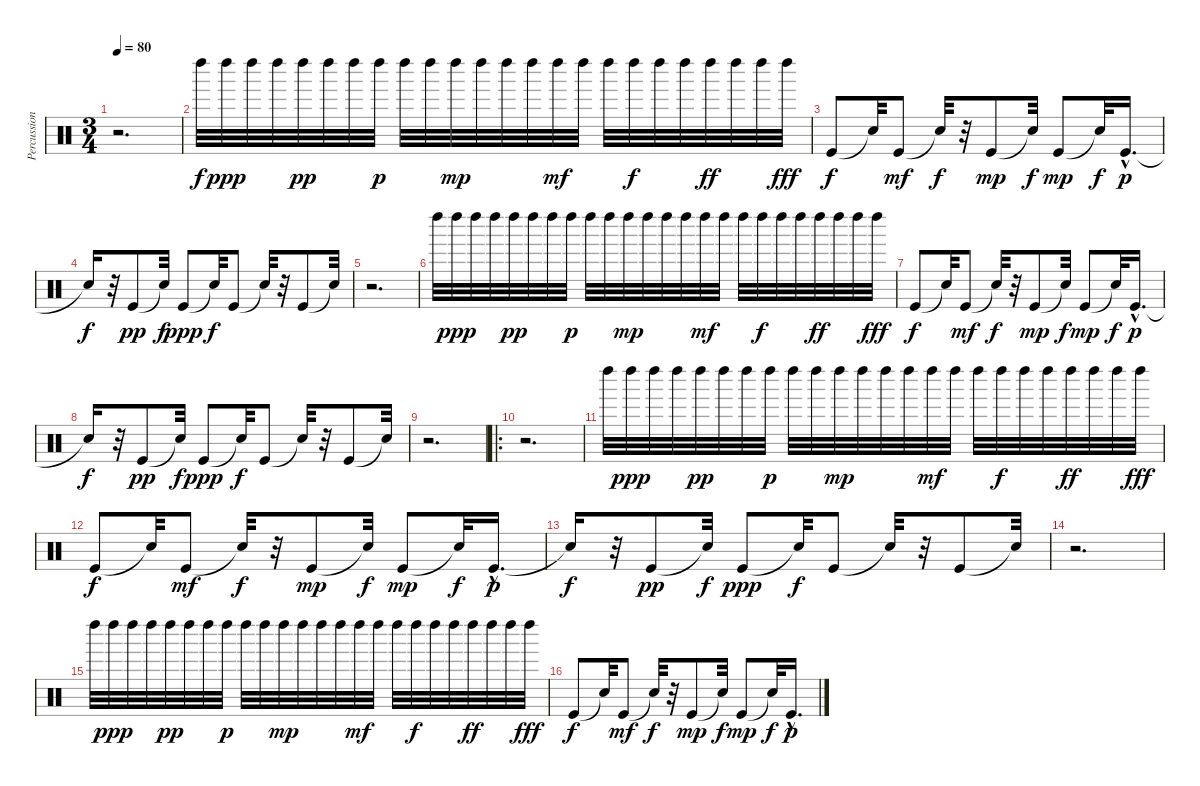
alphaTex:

\track ("Percussions" "Percussion") {instrument percussion}
\staff {score}
\articulation defaults
\ts (3 4)
\tempo 80
\clef neutral
\ks c
r.2{d dy f} |
"Left Maraca (hit)".32{balance 0} "Left Maraca (hit)".32{dy ppp balance 0} "Left Maraca (hit)".32{balance 1} "Left Maraca (hit)".32{balance 1} "Left Maraca (hit)".32{dy pp balance 2} "Left Maraca (hit)".32{balance 2} "Left Maraca (hit)".32{balance 2} "Left Maraca (hit)".32{dy p balance 3} "Left Maraca (hit)".32{balance 3} "Left Maraca (hit)".32{balance 4} "Left Maraca (hit)".32{dy mp balance 4} "Left Maraca (hit)".32{balance 4} "Left Maraca (hit)".32{balance 5} "Left Maraca (hit)".32{balance 5} "Left Maraca (hit)".32{dy mf balance 5} "Left Maraca (hit)".32{balance 6} "Left Maraca (hit)".32{balance 6} "Left Maraca (hit)".32{dy f balance 7} "Left Maraca (hit)".32{balance 7} "Left Maraca (hit)".32{balance 7} "Left Maraca (hit)".32{dy ff balance 8} "Left Maraca (hit)".32{balance 8} "Left Maraca (hit)".32{balance 8} "Left Maraca (hit)".32{dy fff balance 9} |
"Kick (hit)".8{dy f balance 9} "Snare (hit)"{t}.32 "Kick (hit)".8{dy mf balance 10} "Snare (hit)"{t}.32{dy f} r.32 "Kick (hit)".8{dy mp balance 11} "Snare (hit)"{t}.32{dy f} "Kick (hit)".8{dy mp balance 12} "Snare (hit)"{t}.32{dy f} "Kick (hit)"{hac}.16{d dy p balance 12} |
"Snare (hit)"{t}.16{dy f} r.32 "Kick (hit)".8{dy pp balance 13} "Snare (hit)"{t}.32{dy f} "Kick (hit)".8{dy ppp balance 14} "Snare (hit)"{t}.32{dy f} "Kick (hit)".8{balance 14} "Snare (hit)"{t}.32 r.32 "Kick (hit)".8{balance 15} "Snare (hit)"{t}.32 |
r.2{d} |
"Left Maraca (hit)".32{balance 0} "Left Maraca (hit)".32{dy ppp balance 0} "Left Maraca (hit)".32{balance 1} "Left Maraca (hit)".32{balance 1} "Left Maraca (hit)".32{dy pp balance 2} "Left Maraca (hit)".32{balance 2} "Left Maraca (hit)".32{balance 2} "Left Maraca (hit)".32{dy p balance 3} "Left Maraca (hit)".32{balance 3} "Left Maraca (hit)".32{balance 4} "Left Maraca (hit)".32{dy mp balance 4} "Left Maraca (hit)".32{balance 4} "Left Maraca (hit)".32{balance 5} "Left Maraca (hit)".32{balance 5} "Left Maraca (hit)".32{dy mf balance 5} "Left Maraca (hit)".32{balance 6} "Left Maraca (hit)".32{balance 6} "Left Maraca (hit)".32{dy f balance 7} "Left Maraca (hit)".32{balance 7} "Left Maraca (hit)".32{balance 7} "Left Maraca (hit)".32{dy ff balance 8} "Left Maraca (hit)".32{balance 8} "Left Maraca (hit)".32{balance 8} "Left Maraca (hit)".32{dy fff balance 9} |
"Kick (hit)".8{dy f balance 9} "Snare (hit)"{t}.32 "Kick (hit)".8{dy mf balance 10} "Snare (hit)"{t}.32{dy f} r.32 "Kick (hit)".8{dy mp balance 11} "Snare (hit)"{t}.32{dy f} "Kick (hit)".8{dy mp balance 12} "Snare (hit)"{t}.32{dy f} "Kick (hit)"{hac}.16{d dy p balance 12} |
"Snare (hit)"{t}.16{dy f} r.32 "Kick (hit)".8{dy pp balance 13} "Snare (hit)"{t}.32{dy f} "Kick (hit)".8{dy ppp balance 14} "Snare (hit)"{t}.32{dy f} "Kick (hit)".8{balance 14} "Snare (hit)"{t}.32 r.32 "Kick (hit)".8{balance 15} "Snare (hit)"{t}.32 |
r.2{d} |
\ro
r.2{d} |
"Left Maraca (hit)".32{balance 0} "Left Maraca (hit)".32{dy ppp balance 0} "Left Maraca (hit)".32{balance 1} "Left Maraca (hit)".32{balance 1} "Left Maraca (hit)".32{dy pp balance 2} "Left Maraca (hit)".32{balance 2} "Left Maraca (hit)".32{balance 2} "Left Maraca (hit)".32{dy p balance 3} "Left Maraca (hit)".32{balance 3} "Left Maraca (hit)".32{balance 4} "Left Maraca (hit)".32{dy mp balance 4} "Left Maraca (hit)".32{balance 4} "Left Maraca (hit)".32{balance 5} "Left Maraca (hit)".32{balance 5} "Left Maraca (hit)".32{dy mf balance 5} "Left Maraca (hit)".32{balance 6} "Left Maraca (hit)".32{balance 6} "Left Maraca (hit)".32{dy f balance 7} "Left Maraca (hit)".32{balance 7} "Left Maraca (hit)".32{balance 7} "Left Maraca (hit)".32{dy ff balance 8} "Left Maraca (hit)".32{balance 8} "Left Maraca (hit)".32{balance 8} "Left Maraca (hit)".32{dy fff balance 9} |
"Kick (hit)".8{dy f balance 9} "Snare (hit)"{t}.32 "Kick (hit)".8{dy mf balance 10} "Snare (hit)"{t}.32{dy f} r.32 "Kick (hit)".8{dy mp balance 11} "Snare (hit)"{t}.32{dy f} "Kick (hit)".8{dy mp balance 12} "Snare (hit)"{t}.32{dy f} "Kick (hit)"{hac}.16{d dy p balance 12} |
"Snare (hit)"{t}.16{dy f} r.32 "Kick (hit)".8{dy pp balance 13} "Snare (hit)"{t}.32{dy f} "Kick (hit)".8{dy ppp balance 14} "Snare (hit)"{t}.32{dy f} "Kick (hit)".8{balance 14} "Snare (hit)"{t}.32 r.32 "Kick (hit)".8{balance 15} "Snare (hit)"{t}.32 |
r.2{d} |
"Left Maraca (hit)".32{balance 0} "Left Maraca (hit)".32{dy ppp balance 0} "Left Maraca (hit)".32{balance 1} "Left Maraca (hit)".32{balance 1} "Left Maraca (hit)".32{dy pp balance 2} "Left Maraca (hit)".32{balance 2} "Left Maraca (hit)".32{balance 2} "Left Maraca (hit)".32{dy p balance 3} "Left Maraca (hit)".32{balance 3} "Left Maraca (hit)".32{balance 4} "Left Maraca (hit)".32{dy mp balance 4} "Left Maraca (hit)".32{balance 4} "Left Maraca (hit)".32{balance 5} "Left Maraca (hit)".32{balance 5} "Left Maraca (hit)".32{dy mf balance 5} "Left Maraca (hit)".32{balance 6} "Left Maraca (hit)".32{balance 6} "Left Maraca (hit)".32{dy f balance 7} "Left Maraca (hit)".32{balance 7} "Left Maraca (hit)".32{balance 7} "Left Maraca (hit)".32{dy ff balance 8} "Left Maraca (hit)".32{balance 8} "Left Maraca (hit)".32{balance 8} "Left Maraca (hit)".32{dy fff balance 9} |
"Kick (hit)".8{dy f balance 9} "Snare (hit)"{t}.32 "Kick (hit)".8{dy mf balance 10} "Snare (hit)"{t}.32{dy f} r.32 "Kick (hit)".8{dy mp balance 11} "Snare (hit)"{t}.32{dy f} "Kick (hit)".8{dy mp balance 12} "Snare (hit)"{t}.32{dy f} "Kick (hit)"{hac}.16{d dy p balance 12}
